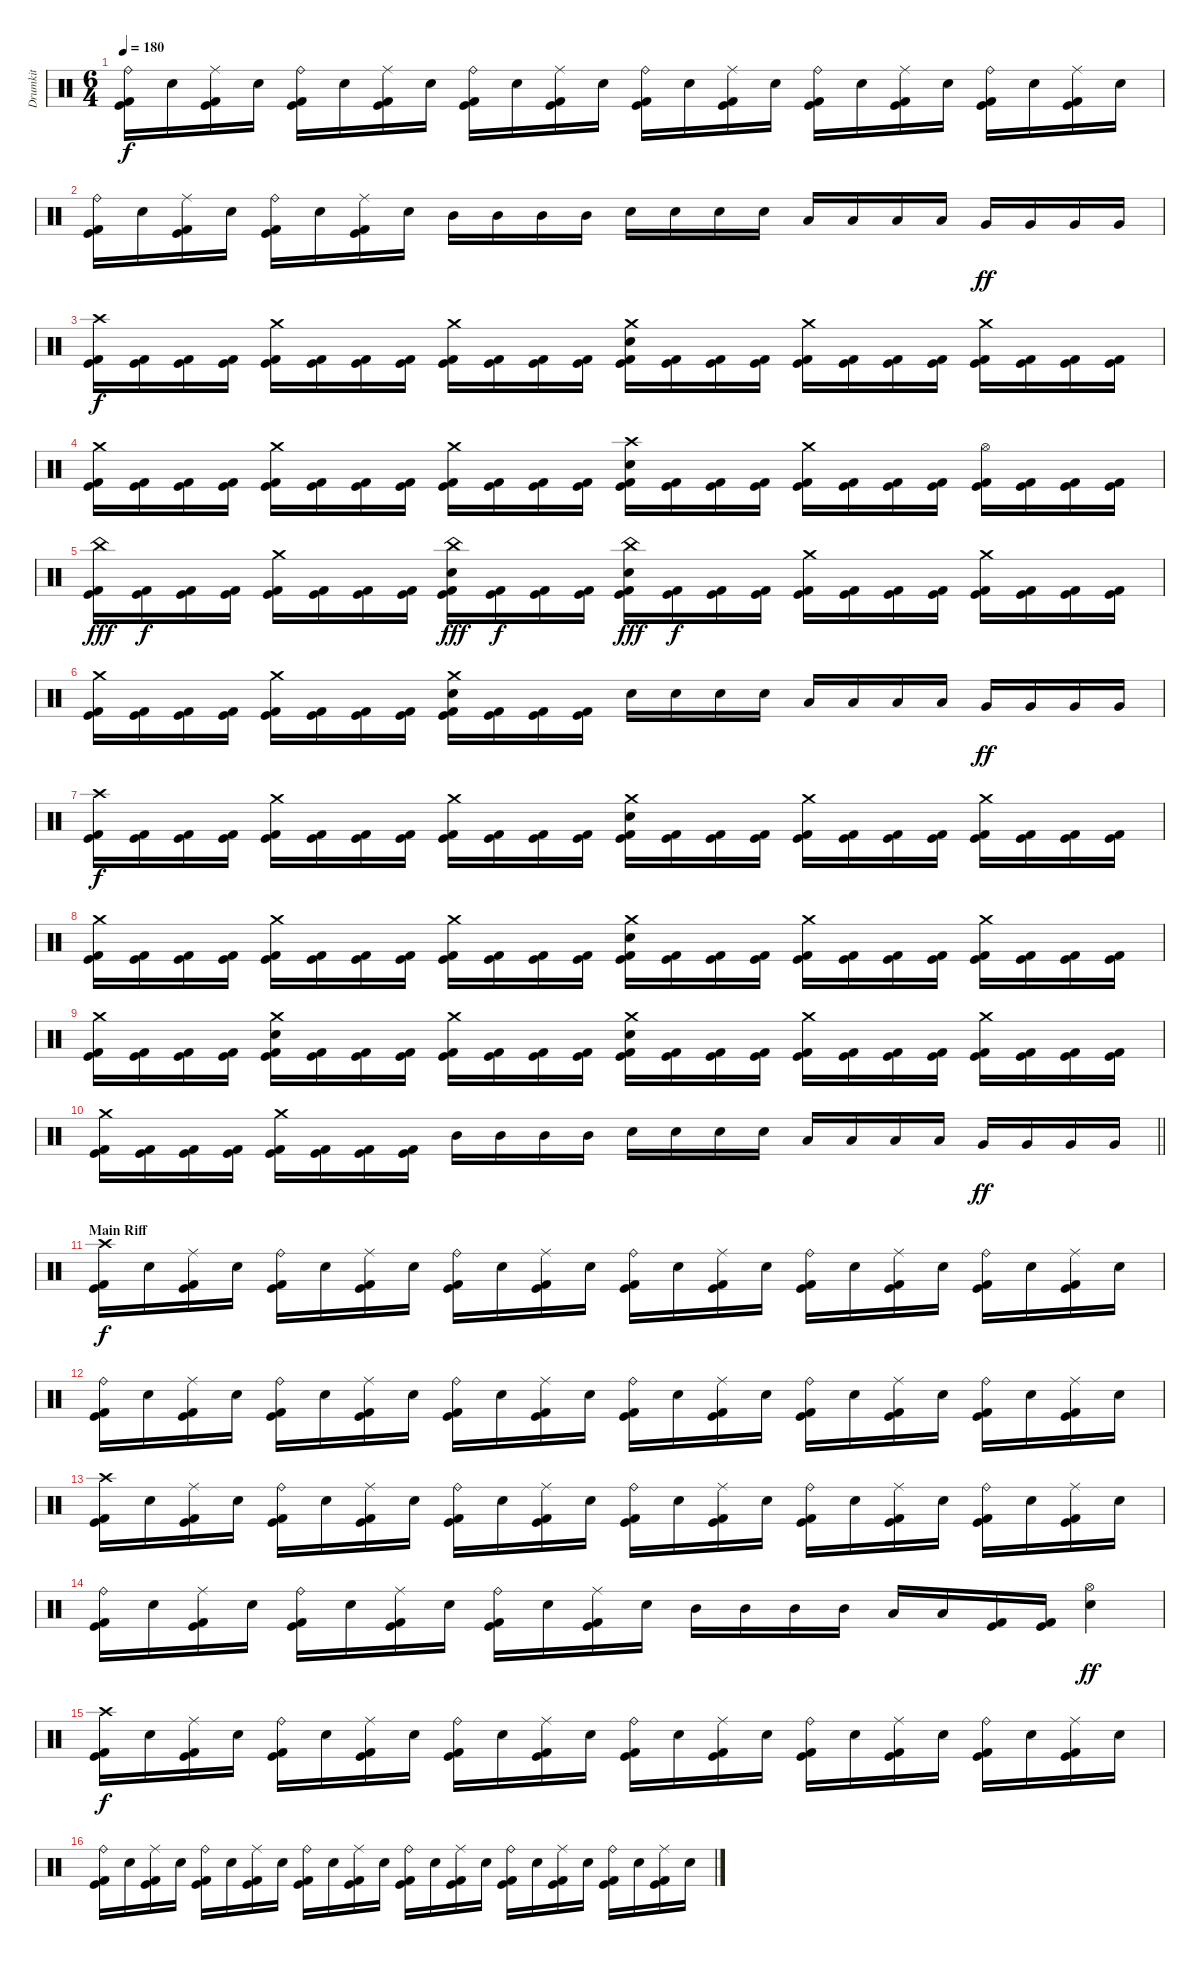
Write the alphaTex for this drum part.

\track ("Drumkit" "Drumkit") {instrument percussion}
\staff {score}
\articulation defaults
\ts (6 4)
\tempo 180
\clef neutral
\ks c
("Ride (bell)" "Kick (hit)" "Kick (hit) 2").16{dy f} "Electric Snare (hit)".16 ("Ride (middle)" "Kick (hit)" "Kick (hit) 2").16 "Electric Snare (hit)".16 ("Ride (bell)" "Kick (hit)" "Kick (hit) 2").16 "Electric Snare (hit)".16 ("Ride (middle)" "Kick (hit)" "Kick (hit) 2").16 "Electric Snare (hit)".16 ("Ride (bell)" "Kick (hit)" "Kick (hit) 2").16 "Electric Snare (hit)".16 ("Ride (middle)" "Kick (hit)" "Kick (hit) 2").16 "Electric Snare (hit)".16 ("Ride (bell)" "Kick (hit)" "Kick (hit) 2").16 "Electric Snare (hit)".16 ("Ride (middle)" "Kick (hit)" "Kick (hit) 2").16 "Electric Snare (hit)".16 ("Ride (bell)" "Kick (hit)" "Kick (hit) 2").16 "Electric Snare (hit)".16 ("Ride (middle)" "Kick (hit)" "Kick (hit) 2").16 "Electric Snare (hit)".16 ("Ride (bell)" "Kick (hit)" "Kick (hit) 2").16 "Electric Snare (hit)".16 ("Ride (middle)" "Kick (hit)" "Kick (hit) 2").16 "Electric Snare (hit)".16 |
("Ride (bell)" "Kick (hit)" "Kick (hit) 2").16 "Electric Snare (hit)".16 ("Ride (middle)" "Kick (hit)" "Kick (hit) 2").16 "Electric Snare (hit)".16 ("Ride (bell)" "Kick (hit)" "Kick (hit) 2").16 "Electric Snare (hit)".16 ("Ride (middle)" "Kick (hit)" "Kick (hit) 2").16 "Electric Snare (hit)".16 "Mid Tom (hit)".16 "Mid Tom (hit)".16 "Mid Tom (hit)".16 "Mid Tom (hit)".16 "Electric Snare (hit)".16 "Electric Snare (hit)".16 "Electric Snare (hit)".16 "Electric Snare (hit)".16 "Low Tom (hit)".16 "Low Tom (hit)".16 "Low Tom (hit)".16 "Low Tom (hit)".16 "Very Low Tom (hit)".16{dy ff} "Very Low Tom (hit)".16 "Very Low Tom (hit)".16 "Very Low Tom (hit)".16 |
("Crash high (hit)" "Kick (hit)" "Kick (hit) 2").16{dy f} ("Kick (hit)" "Kick (hit) 2").16 ("Kick (hit)" "Kick (hit) 2").16 ("Kick (hit)" "Kick (hit) 2").16 ("Crash medium (hit)" "Kick (hit)" "Kick (hit) 2").16 ("Kick (hit)" "Kick (hit) 2").16 ("Kick (hit)" "Kick (hit) 2").16 ("Kick (hit)" "Kick (hit) 2").16 ("Crash medium (hit)" "Kick (hit)" "Kick (hit) 2").16 ("Kick (hit)" "Kick (hit) 2").16 ("Kick (hit)" "Kick (hit) 2").16 ("Kick (hit)" "Kick (hit) 2").16 ("Crash medium (hit)" "Electric Snare (hit)" "Kick (hit)" "Kick (hit) 2").16 ("Kick (hit)" "Kick (hit) 2").16 ("Kick (hit)" "Kick (hit) 2").16 ("Kick (hit)" "Kick (hit) 2").16 ("Crash medium (hit)" "Kick (hit)" "Kick (hit) 2").16 ("Kick (hit)" "Kick (hit) 2").16 ("Kick (hit)" "Kick (hit) 2").16 ("Kick (hit)" "Kick (hit) 2").16 ("Crash medium (hit)" "Kick (hit)" "Kick (hit) 2").16 ("Kick (hit)" "Kick (hit) 2").16 ("Kick (hit)" "Kick (hit) 2").16 ("Kick (hit)" "Kick (hit) 2").16 |
("Crash medium (hit)" "Kick (hit)" "Kick (hit) 2").16 ("Kick (hit)" "Kick (hit) 2").16 ("Kick (hit)" "Kick (hit) 2").16 ("Kick (hit)" "Kick (hit) 2").16 ("Crash medium (hit)" "Kick (hit)" "Kick (hit) 2").16 ("Kick (hit)" "Kick (hit) 2").16 ("Kick (hit)" "Kick (hit) 2").16 ("Kick (hit)" "Kick (hit) 2").16 ("Crash medium (hit)" "Kick (hit)" "Kick (hit) 2").16 ("Kick (hit)" "Kick (hit) 2").16 ("Kick (hit)" "Kick (hit) 2").16 ("Kick (hit)" "Kick (hit) 2").16 ("Crash high (hit)" "Electric Snare (hit)" "Kick (hit)" "Kick (hit) 2").16 ("Kick (hit)" "Kick (hit) 2").16 ("Kick (hit)" "Kick (hit) 2").16 ("Kick (hit)" "Kick (hit) 2").16 ("Crash medium (hit)" "Kick (hit)" "Kick (hit) 2").16 ("Kick (hit)" "Kick (hit) 2").16 ("Kick (hit)" "Kick (hit) 2").16 ("Kick (hit)" "Kick (hit) 2").16 ("Hi-Hat (open)" "Kick (hit)" "Kick (hit) 2").16 ("Kick (hit)" "Kick (hit) 2").16 ("Kick (hit)" "Kick (hit) 2").16 ("Kick (hit)" "Kick (hit) 2").16 |
("China (hit)" "Kick (hit)" "Kick (hit) 2").16{dy fff} ("Kick (hit)" "Kick (hit) 2").16{dy f} ("Kick (hit)" "Kick (hit) 2").16 ("Kick (hit)" "Kick (hit) 2").16 ("Crash medium (hit)" "Kick (hit)" "Kick (hit) 2").16 ("Kick (hit)" "Kick (hit) 2").16 ("Kick (hit)" "Kick (hit) 2").16 ("Kick (hit)" "Kick (hit) 2").16 ("China (hit)" "Electric Snare (hit)" "Kick (hit)" "Kick (hit) 2").16{dy fff} ("Kick (hit)" "Kick (hit) 2").16{dy f} ("Kick (hit)" "Kick (hit) 2").16 ("Kick (hit)" "Kick (hit) 2").16 ("China (hit)" "Electric Snare (hit)" "Kick (hit)" "Kick (hit) 2").16{dy fff} ("Kick (hit)" "Kick (hit) 2").16{dy f} ("Kick (hit)" "Kick (hit) 2").16 ("Kick (hit)" "Kick (hit) 2").16 ("Crash medium (hit)" "Kick (hit)" "Kick (hit) 2").16 ("Kick (hit)" "Kick (hit) 2").16 ("Kick (hit)" "Kick (hit) 2").16 ("Kick (hit)" "Kick (hit) 2").16 ("Crash medium (hit)" "Kick (hit)" "Kick (hit) 2").16 ("Kick (hit)" "Kick (hit) 2").16 ("Kick (hit)" "Kick (hit) 2").16 ("Kick (hit)" "Kick (hit) 2").16 |
("Crash medium (hit)" "Kick (hit)" "Kick (hit) 2").16 ("Kick (hit)" "Kick (hit) 2").16 ("Kick (hit)" "Kick (hit) 2").16 ("Kick (hit)" "Kick (hit) 2").16 ("Crash medium (hit)" "Kick (hit)" "Kick (hit) 2").16 ("Kick (hit)" "Kick (hit) 2").16 ("Kick (hit)" "Kick (hit) 2").16 ("Kick (hit)" "Kick (hit) 2").16 ("Crash medium (hit)" "Electric Snare (hit)" "Kick (hit)" "Kick (hit) 2").16 ("Kick (hit)" "Kick (hit) 2").16 ("Kick (hit)" "Kick (hit) 2").16 ("Kick (hit)" "Kick (hit) 2").16 "Electric Snare (hit)".16 "Electric Snare (hit)".16 "Electric Snare (hit)".16 "Electric Snare (hit)".16 "Low Tom (hit)".16 "Low Tom (hit)".16 "Low Tom (hit)".16 "Low Tom (hit)".16 "Very Low Tom (hit)".16{dy ff} "Very Low Tom (hit)".16 "Very Low Tom (hit)".16 "Very Low Tom (hit)".16 |
("Crash high (hit)" "Kick (hit)" "Kick (hit) 2").16{dy f} ("Kick (hit)" "Kick (hit) 2").16 ("Kick (hit)" "Kick (hit) 2").16 ("Kick (hit)" "Kick (hit) 2").16 ("Crash medium (hit)" "Kick (hit)" "Kick (hit) 2").16 ("Kick (hit)" "Kick (hit) 2").16 ("Kick (hit)" "Kick (hit) 2").16 ("Kick (hit)" "Kick (hit) 2").16 ("Crash medium (hit)" "Kick (hit)" "Kick (hit) 2").16 ("Kick (hit)" "Kick (hit) 2").16 ("Kick (hit)" "Kick (hit) 2").16 ("Kick (hit)" "Kick (hit) 2").16 ("Crash medium (hit)" "Electric Snare (hit)" "Kick (hit)" "Kick (hit) 2").16 ("Kick (hit)" "Kick (hit) 2").16 ("Kick (hit)" "Kick (hit) 2").16 ("Kick (hit)" "Kick (hit) 2").16 ("Crash medium (hit)" "Kick (hit)" "Kick (hit) 2").16 ("Kick (hit)" "Kick (hit) 2").16 ("Kick (hit)" "Kick (hit) 2").16 ("Kick (hit)" "Kick (hit) 2").16 ("Crash medium (hit)" "Kick (hit)" "Kick (hit) 2").16 ("Kick (hit)" "Kick (hit) 2").16 ("Kick (hit)" "Kick (hit) 2").16 ("Kick (hit)" "Kick (hit) 2").16 |
("Crash medium (hit)" "Kick (hit)" "Kick (hit) 2").16 ("Kick (hit)" "Kick (hit) 2").16 ("Kick (hit)" "Kick (hit) 2").16 ("Kick (hit)" "Kick (hit) 2").16 ("Crash medium (hit)" "Kick (hit)" "Kick (hit) 2").16 ("Kick (hit)" "Kick (hit) 2").16 ("Kick (hit)" "Kick (hit) 2").16 ("Kick (hit)" "Kick (hit) 2").16 ("Crash medium (hit)" "Kick (hit)" "Kick (hit) 2").16 ("Kick (hit)" "Kick (hit) 2").16 ("Kick (hit)" "Kick (hit) 2").16 ("Kick (hit)" "Kick (hit) 2").16 ("Crash medium (hit)" "Electric Snare (hit)" "Kick (hit)" "Kick (hit) 2").16 ("Kick (hit)" "Kick (hit) 2").16 ("Kick (hit)" "Kick (hit) 2").16 ("Kick (hit)" "Kick (hit) 2").16 ("Crash medium (hit)" "Kick (hit)" "Kick (hit) 2").16 ("Kick (hit)" "Kick (hit) 2").16 ("Kick (hit)" "Kick (hit) 2").16 ("Kick (hit)" "Kick (hit) 2").16 ("Crash medium (hit)" "Kick (hit)" "Kick (hit) 2").16 ("Kick (hit)" "Kick (hit) 2").16 ("Kick (hit)" "Kick (hit) 2").16 ("Kick (hit)" "Kick (hit) 2").16 |
("Crash medium (hit)" "Kick (hit)" "Kick (hit) 2").16 ("Kick (hit)" "Kick (hit) 2").16 ("Kick (hit)" "Kick (hit) 2").16 ("Kick (hit)" "Kick (hit) 2").16 ("Crash medium (hit)" "Electric Snare (hit)" "Kick (hit)" "Kick (hit) 2").16 ("Kick (hit)" "Kick (hit) 2").16 ("Kick (hit)" "Kick (hit) 2").16 ("Kick (hit)" "Kick (hit) 2").16 ("Crash medium (hit)" "Kick (hit)" "Kick (hit) 2").16 ("Kick (hit)" "Kick (hit) 2").16 ("Kick (hit)" "Kick (hit) 2").16 ("Kick (hit)" "Kick (hit) 2").16 ("Crash medium (hit)" "Electric Snare (hit)" "Kick (hit)" "Kick (hit) 2").16 ("Kick (hit)" "Kick (hit) 2").16 ("Kick (hit)" "Kick (hit) 2").16 ("Kick (hit)" "Kick (hit) 2").16 ("Crash medium (hit)" "Kick (hit)" "Kick (hit) 2").16 ("Kick (hit)" "Kick (hit) 2").16 ("Kick (hit)" "Kick (hit) 2").16 ("Kick (hit)" "Kick (hit) 2").16 ("Crash medium (hit)" "Kick (hit)" "Kick (hit) 2").16 ("Kick (hit)" "Kick (hit) 2").16 ("Kick (hit)" "Kick (hit) 2").16 ("Kick (hit)" "Kick (hit) 2").16 |
\barLineRight lightlight
("Crash medium (hit)" "Kick (hit)" "Kick (hit) 2").16 ("Kick (hit)" "Kick (hit) 2").16 ("Kick (hit)" "Kick (hit) 2").16 ("Kick (hit)" "Kick (hit) 2").16 ("Crash medium (hit)" "Kick (hit)" "Kick (hit) 2").16 ("Kick (hit)" "Kick (hit) 2").16 ("Kick (hit)" "Kick (hit) 2").16 ("Kick (hit)" "Kick (hit) 2").16 "Mid Tom (hit)".16 "Mid Tom (hit)".16 "Mid Tom (hit)".16 "Mid Tom (hit)".16 "Electric Snare (hit)".16 "Electric Snare (hit)".16 "Electric Snare (hit)".16 "Electric Snare (hit)".16 "Low Tom (hit)".16 "Low Tom (hit)".16 "Low Tom (hit)".16 "Low Tom (hit)".16 "Very Low Tom (hit)".16{dy ff} "Very Low Tom (hit)".16 "Very Low Tom (hit)".16 "Very Low Tom (hit)".16 |
\section ("" "Main Riff")
("Crash high (hit)" "Kick (hit)" "Kick (hit) 2").16{dy f} "Electric Snare (hit)".16 ("Ride (middle)" "Kick (hit)" "Kick (hit) 2").16 "Electric Snare (hit)".16 ("Ride (bell)" "Kick (hit)" "Kick (hit) 2").16 "Electric Snare (hit)".16 ("Ride (middle)" "Kick (hit)" "Kick (hit) 2").16 "Electric Snare (hit)".16 ("Ride (bell)" "Kick (hit)" "Kick (hit) 2").16 "Electric Snare (hit)".16 ("Ride (middle)" "Kick (hit)" "Kick (hit) 2").16 "Electric Snare (hit)".16 ("Ride (bell)" "Kick (hit)" "Kick (hit) 2").16 "Electric Snare (hit)".16 ("Ride (middle)" "Kick (hit)" "Kick (hit) 2").16 "Electric Snare (hit)".16 ("Ride (bell)" "Kick (hit)" "Kick (hit) 2").16 "Electric Snare (hit)".16 ("Ride (middle)" "Kick (hit)" "Kick (hit) 2").16 "Electric Snare (hit)".16 ("Ride (bell)" "Kick (hit)" "Kick (hit) 2").16 "Electric Snare (hit)".16 ("Ride (middle)" "Kick (hit)" "Kick (hit) 2").16 "Electric Snare (hit)".16 |
("Ride (bell)" "Kick (hit)" "Kick (hit) 2").16 "Electric Snare (hit)".16 ("Ride (middle)" "Kick (hit)" "Kick (hit) 2").16 "Electric Snare (hit)".16 ("Ride (bell)" "Kick (hit)" "Kick (hit) 2").16 "Electric Snare (hit)".16 ("Ride (middle)" "Kick (hit)" "Kick (hit) 2").16 "Electric Snare (hit)".16 ("Ride (bell)" "Kick (hit)" "Kick (hit) 2").16 "Electric Snare (hit)".16 ("Ride (middle)" "Kick (hit)" "Kick (hit) 2").16 "Electric Snare (hit)".16 ("Ride (bell)" "Kick (hit)" "Kick (hit) 2").16 "Electric Snare (hit)".16 ("Ride (middle)" "Kick (hit)" "Kick (hit) 2").16 "Electric Snare (hit)".16 ("Ride (bell)" "Kick (hit)" "Kick (hit) 2").16 "Electric Snare (hit)".16 ("Ride (middle)" "Kick (hit)" "Kick (hit) 2").16 "Electric Snare (hit)".16 ("Ride (bell)" "Kick (hit)" "Kick (hit) 2").16 "Electric Snare (hit)".16 ("Ride (middle)" "Kick (hit)" "Kick (hit) 2").16 "Electric Snare (hit)".16 |
("Crash high (hit)" "Kick (hit)" "Kick (hit) 2").16 "Electric Snare (hit)".16 ("Ride (middle)" "Kick (hit)" "Kick (hit) 2").16 "Electric Snare (hit)".16 ("Ride (bell)" "Kick (hit)" "Kick (hit) 2").16 "Electric Snare (hit)".16 ("Ride (middle)" "Kick (hit)" "Kick (hit) 2").16 "Electric Snare (hit)".16 ("Ride (bell)" "Kick (hit)" "Kick (hit) 2").16 "Electric Snare (hit)".16 ("Ride (middle)" "Kick (hit)" "Kick (hit) 2").16 "Electric Snare (hit)".16 ("Ride (bell)" "Kick (hit)" "Kick (hit) 2").16 "Electric Snare (hit)".16 ("Ride (middle)" "Kick (hit)" "Kick (hit) 2").16 "Electric Snare (hit)".16 ("Ride (bell)" "Kick (hit)" "Kick (hit) 2").16 "Electric Snare (hit)".16 ("Ride (middle)" "Kick (hit)" "Kick (hit) 2").16 "Electric Snare (hit)".16 ("Ride (bell)" "Kick (hit)" "Kick (hit) 2").16 "Electric Snare (hit)".16 ("Ride (middle)" "Kick (hit)" "Kick (hit) 2").16 "Electric Snare (hit)".16 |
("Ride (bell)" "Kick (hit)" "Kick (hit) 2").16 "Electric Snare (hit)".16 ("Ride (middle)" "Kick (hit)" "Kick (hit) 2").16 "Electric Snare (hit)".16 ("Ride (bell)" "Kick (hit)" "Kick (hit) 2").16 "Electric Snare (hit)".16 ("Ride (middle)" "Kick (hit)" "Kick (hit) 2").16 "Electric Snare (hit)".16 ("Ride (bell)" "Kick (hit)" "Kick (hit) 2").16 "Electric Snare (hit)".16 ("Ride (middle)" "Kick (hit)" "Kick (hit) 2").16 "Electric Snare (hit)".16 "Mid Tom (hit)".16 "Mid Tom (hit)".16 "Mid Tom (hit)".16 "Mid Tom (hit)".16 "Low Tom (hit)".16 "Low Tom (hit)".16 ("Kick (hit)" "Kick (hit) 2").16 ("Kick (hit)" "Kick (hit) 2").16 ("Hi-Hat (open)" "Electric Snare (hit)").4{dy ff} |
("Crash high (hit)" "Kick (hit)" "Kick (hit) 2").16{dy f} "Electric Snare (hit)".16 ("Ride (middle)" "Kick (hit)" "Kick (hit) 2").16 "Electric Snare (hit)".16 ("Ride (bell)" "Kick (hit)" "Kick (hit) 2").16 "Electric Snare (hit)".16 ("Ride (middle)" "Kick (hit)" "Kick (hit) 2").16 "Electric Snare (hit)".16 ("Ride (bell)" "Kick (hit)" "Kick (hit) 2").16 "Electric Snare (hit)".16 ("Ride (middle)" "Kick (hit)" "Kick (hit) 2").16 "Electric Snare (hit)".16 ("Ride (bell)" "Kick (hit)" "Kick (hit) 2").16 "Electric Snare (hit)".16 ("Ride (middle)" "Kick (hit)" "Kick (hit) 2").16 "Electric Snare (hit)".16 ("Ride (bell)" "Kick (hit)" "Kick (hit) 2").16 "Electric Snare (hit)".16 ("Ride (middle)" "Kick (hit)" "Kick (hit) 2").16 "Electric Snare (hit)".16 ("Ride (bell)" "Kick (hit)" "Kick (hit) 2").16 "Electric Snare (hit)".16 ("Ride (middle)" "Kick (hit)" "Kick (hit) 2").16 "Electric Snare (hit)".16 |
("Ride (bell)" "Kick (hit)" "Kick (hit) 2").16 "Electric Snare (hit)".16 ("Ride (middle)" "Kick (hit)" "Kick (hit) 2").16 "Electric Snare (hit)".16 ("Ride (bell)" "Kick (hit)" "Kick (hit) 2").16 "Electric Snare (hit)".16 ("Ride (middle)" "Kick (hit)" "Kick (hit) 2").16 "Electric Snare (hit)".16 ("Ride (bell)" "Kick (hit)" "Kick (hit) 2").16 "Electric Snare (hit)".16 ("Ride (middle)" "Kick (hit)" "Kick (hit) 2").16 "Electric Snare (hit)".16 ("Ride (bell)" "Kick (hit)" "Kick (hit) 2").16 "Electric Snare (hit)".16 ("Ride (middle)" "Kick (hit)" "Kick (hit) 2").16 "Electric Snare (hit)".16 ("Ride (bell)" "Kick (hit)" "Kick (hit) 2").16 "Electric Snare (hit)".16 ("Ride (middle)" "Kick (hit)" "Kick (hit) 2").16 "Electric Snare (hit)".16 ("Ride (bell)" "Kick (hit)" "Kick (hit) 2").16 "Electric Snare (hit)".16 ("Ride (middle)" "Kick (hit)" "Kick (hit) 2").16 "Electric Snare (hit)".16
